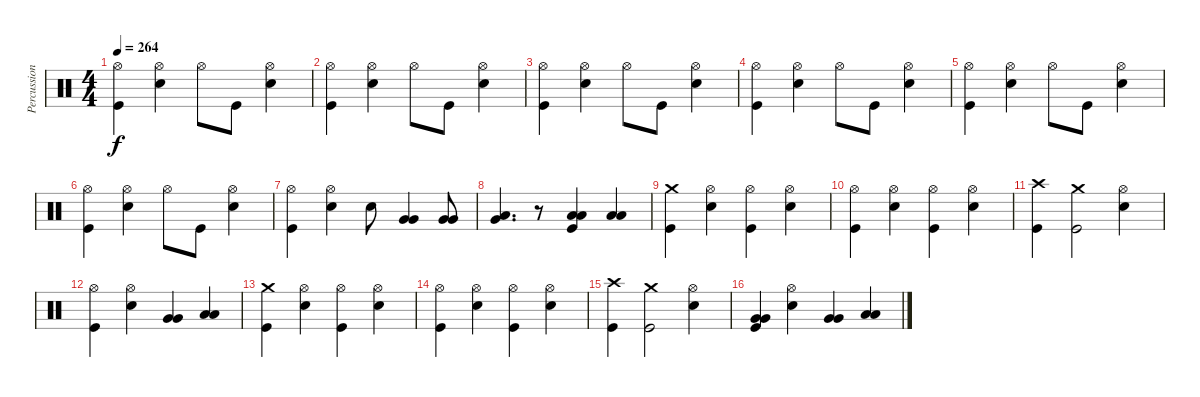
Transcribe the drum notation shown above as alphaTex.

\track ("Percussion" "Percussion") {instrument percussion}
\staff {score}
\articulation defaults
\ts (4 4)
\tempo 264
\clef neutral
\ks c
("Hi-Hat (open)" "Kick (hit)").4{dy f} ("Hi-Hat (open)" "Snare (hit) 2").4 "Hi-Hat (open)".8 "Kick (hit)".8 ("Hi-Hat (open)" "Snare (hit) 2").4 |
("Hi-Hat (open)" "Kick (hit)").4 ("Hi-Hat (open)" "Snare (hit) 2").4 "Hi-Hat (open)".8 "Kick (hit)".8 ("Hi-Hat (open)" "Snare (hit) 2").4 |
("Hi-Hat (open)" "Kick (hit)").4 ("Hi-Hat (open)" "Snare (hit) 2").4 "Hi-Hat (open)".8 "Kick (hit)".8 ("Hi-Hat (open)" "Snare (hit) 2").4 |
("Hi-Hat (open)" "Kick (hit)").4 ("Hi-Hat (open)" "Snare (hit) 2").4 "Hi-Hat (open)".8 "Kick (hit)".8 ("Hi-Hat (open)" "Snare (hit) 2").4 |
("Hi-Hat (open)" "Kick (hit)").4 ("Hi-Hat (open)" "Snare (hit) 2").4 "Hi-Hat (open)".8 "Kick (hit)".8 ("Hi-Hat (open)" "Snare (hit) 2").4 |
("Hi-Hat (open)" "Kick (hit)").4 ("Hi-Hat (open)" "Snare (hit) 2").4 "Hi-Hat (open)".8 "Kick (hit)".8 ("Hi-Hat (open)" "Snare (hit) 2").4 |
("Hi-Hat (open)" "Kick (hit)").4 ("Hi-Hat (open)" "Snare (hit) 2").4 "Snare (hit) 2".8 ("Very Low Tom (hit)" "Very Low Tom (hit)").4 ("Very Low Tom (hit)" "Very Low Tom (hit)").8 |
("Low Floor Tom (hit)" "Very Low Tom (hit)").4{d} r.8 ("Low Floor Tom (hit)" "Low Floor Tom (hit)" "Kick (hit)").4 ("Low Floor Tom (hit)" "Low Floor Tom (hit)").4 |
("Crash medium (hit)" "Kick (hit)").4 ("Hi-Hat (open)" "Snare (hit) 2").4 ("Hi-Hat (open)" "Kick (hit)").4 ("Hi-Hat (open)" "Snare (hit) 2").4 |
("Hi-Hat (open)" "Kick (hit)").4 ("Hi-Hat (open)" "Snare (hit) 2").4 ("Hi-Hat (open)" "Kick (hit)").4 ("Hi-Hat (open)" "Snare (hit) 2").4 |
("Crash high (hit)" "Kick (hit)").4 ("Crash medium (hit)" "Kick (hit)").2 ("Hi-Hat (open)" "Snare (hit) 2").4 |
("Hi-Hat (open)" "Kick (hit)").4 ("Hi-Hat (open)" "Snare (hit) 2").4 ("Very Low Tom (hit)" "Very Low Tom (hit)").4 ("Low Floor Tom (hit)" "Low Floor Tom (hit)").4 |
("Crash medium (hit)" "Kick (hit)").4 ("Hi-Hat (open)" "Snare (hit) 2").4 ("Hi-Hat (open)" "Kick (hit)").4 ("Hi-Hat (open)" "Snare (hit) 2").4 |
("Hi-Hat (open)" "Kick (hit)").4 ("Hi-Hat (open)" "Snare (hit) 2").4 ("Hi-Hat (open)" "Kick (hit)").4 ("Hi-Hat (open)" "Snare (hit) 2").4 |
("Crash high (hit)" "Kick (hit)").4 ("Crash medium (hit)" "Kick (hit)").2 ("Hi-Hat (open)" "Snare (hit) 2").4 |
("Very Low Tom (hit)" "Very Low Tom (hit)" "Kick (hit)").4 ("Hi-Hat (open)" "Snare (hit) 2").4 ("Very Low Tom (hit)" "Very Low Tom (hit)").4 ("Low Floor Tom (hit)" "Low Floor Tom (hit)").4
